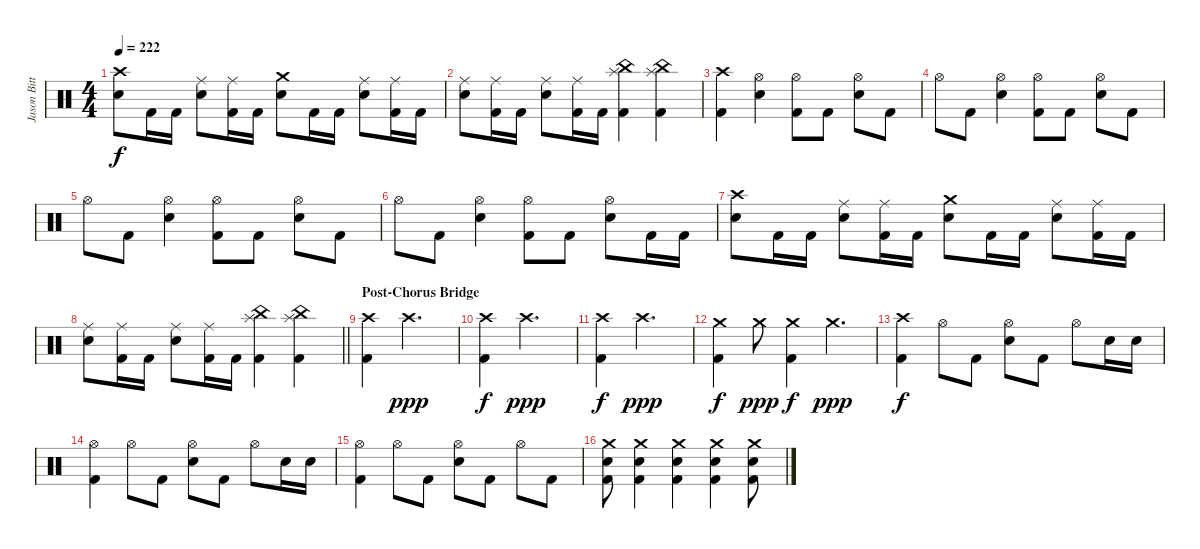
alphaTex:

\track ("Jason Bittner" "Jason Bitt") {instrument percussion}
\staff {score}
\articulation defaults
\ts (4 4)
\tempo 222
\clef neutral
\ks c
("Crash high (hit)" "Electric Snare (hit)").8{dy f} "Kick (hit) 2".16 "Kick (hit) 2".16 ("Ride (middle)" "Electric Snare (hit)").8 ("Ride (middle)" "Kick (hit) 2").16 "Kick (hit) 2".16 ("Crash medium (hit)" "Electric Snare (hit)").8 "Kick (hit) 2".16 "Kick (hit) 2".16 ("Ride (middle)" "Electric Snare (hit)").8 ("Ride (middle)" "Kick (hit) 2").16 "Kick (hit) 2".16 |
("Ride (middle)" "Electric Snare (hit)").8 ("Ride (middle)" "Kick (hit) 2").16 "Kick (hit) 2".16 ("Ride (middle)" "Electric Snare (hit)").8 ("Ride (middle)" "Kick (hit) 2").16 "Kick (hit) 2".16 ("China (hit)" "Splash (hit)" "Kick (hit) 2").4 ("China (hit)" "Splash (hit)" "Kick (hit) 2").4 |
("Crash high (hit)" "Kick (hit) 2").4 ("Hi-Hat (open)" "Electric Snare (hit)").4 ("Hi-Hat (open)" "Kick (hit) 2").8 "Kick (hit) 2".8 ("Hi-Hat (open)" "Electric Snare (hit)").8 "Kick (hit) 2".8 |
"Hi-Hat (open)".8 "Kick (hit) 2".8 ("Hi-Hat (open)" "Electric Snare (hit)").4 ("Hi-Hat (open)" "Kick (hit) 2").8 "Kick (hit) 2".8 ("Hi-Hat (open)" "Electric Snare (hit)").8 "Kick (hit) 2".8 |
"Hi-Hat (open)".8 "Kick (hit) 2".8 ("Hi-Hat (open)" "Electric Snare (hit)").4 ("Hi-Hat (open)" "Kick (hit) 2").8 "Kick (hit) 2".8 ("Hi-Hat (open)" "Electric Snare (hit)").8 "Kick (hit) 2".8 |
"Hi-Hat (open)".8 "Kick (hit) 2".8 ("Hi-Hat (open)" "Electric Snare (hit)").4 ("Hi-Hat (open)" "Kick (hit) 2").8 "Kick (hit) 2".8 ("Hi-Hat (open)" "Electric Snare (hit)").8 "Kick (hit) 2".16 "Kick (hit) 2".16 |
("Crash high (hit)" "Electric Snare (hit)").8 "Kick (hit) 2".16 "Kick (hit) 2".16 ("Ride (middle)" "Electric Snare (hit)").8 ("Ride (middle)" "Kick (hit) 2").16 "Kick (hit) 2".16 ("Crash medium (hit)" "Electric Snare (hit)").8 "Kick (hit) 2".16 "Kick (hit) 2".16 ("Ride (middle)" "Electric Snare (hit)").8 ("Ride (middle)" "Kick (hit) 2").16 "Kick (hit) 2".16 |
\barLineRight lightlight
("Ride (middle)" "Electric Snare (hit)").8 ("Ride (middle)" "Kick (hit) 2").16 "Kick (hit) 2".16 ("Ride (middle)" "Electric Snare (hit)").8 ("Ride (middle)" "Kick (hit) 2").16 "Kick (hit) 2".16 ("China (hit)" "Splash (hit)" "Kick (hit) 2").4 ("China (hit)" "Splash (hit)" "Kick (hit) 2").4 |
\section ("" "Post-Chorus Bridge")
("Crash high (hit)" "Kick (hit) 2").4 "Crash high (hit)".2{d dy ppp} |
("Crash high (hit)" "Kick (hit) 2").4{dy f} "Crash high (hit)".2{d dy ppp} |
("Crash high (hit)" "Kick (hit) 2").4{dy f} "Crash high (hit)".2{d dy ppp} |
("Crash medium (hit)" "Kick (hit) 2").4{dy f} "Crash medium (hit)".8{dy ppp} ("Crash medium (hit)" "Kick (hit) 2").4{dy f} "Crash medium (hit)".4{d dy ppp} |
("Crash high (hit)" "Kick (hit) 2").4{dy f} "Hi-Hat (open)".8 "Kick (hit) 2".8 ("Hi-Hat (open)" "Electric Snare (hit)").8 "Kick (hit) 2".8 "Hi-Hat (open)".8 "Electric Snare (hit)".16 "Electric Snare (hit)".16 |
("Hi-Hat (open)" "Kick (hit) 2").4 "Hi-Hat (open)".8 "Kick (hit) 2".8 ("Hi-Hat (open)" "Electric Snare (hit)").8 "Kick (hit) 2".8 "Hi-Hat (open)".8 "Electric Snare (hit)".16 "Electric Snare (hit)".16 |
("Hi-Hat (open)" "Kick (hit) 2").4 "Hi-Hat (open)".8 "Kick (hit) 2".8 ("Hi-Hat (open)" "Electric Snare (hit)").8 "Kick (hit) 2".8 "Hi-Hat (open)".8 "Kick (hit) 2".8 |
("Crash medium (hit)" "Electric Snare (hit)" "Kick (hit) 2").8 ("Crash medium (hit)" "Electric Snare (hit)" "Kick (hit) 2").4 ("Crash medium (hit)" "Electric Snare (hit)" "Kick (hit) 2").4 ("Crash medium (hit)" "Electric Snare (hit)" "Kick (hit) 2").4 ("Crash medium (hit)" "Electric Snare (hit)" "Kick (hit) 2").8
